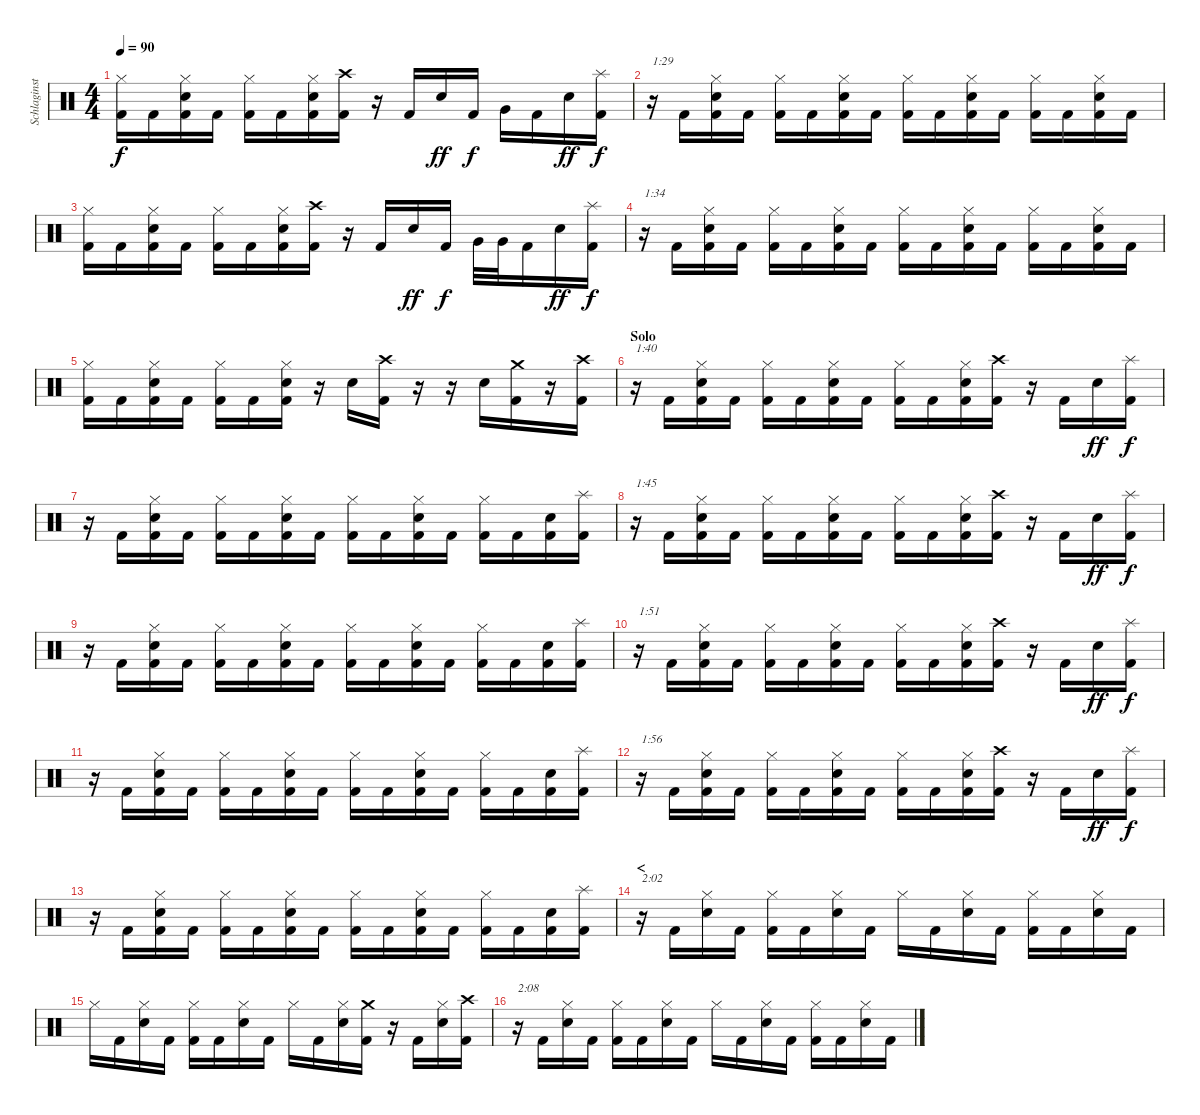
\track ("Schlaginstrumente - Auswahl" "Schlaginst") {instrument percussion}
\staff {score}
\articulation defaults
\ts (4 4)
\tempo 90
\clef neutral
\ks c
("Hi-Hat (closed)" "Kick (hit) 2").16{dy f} "Kick (hit) 2".16 ("Hi-Hat (closed)" "Electric Snare (hit)" "Kick (hit) 2").16 "Kick (hit) 2".16 ("Hi-Hat (closed)" "Kick (hit) 2").16 "Kick (hit) 2".16 ("Hi-Hat (closed)" "Electric Snare (hit)" "Kick (hit) 2").16 ("Crash high (hit)" "Kick (hit) 2").16 r.16 "Kick (hit) 2".16 "Electric Snare (hit)".16{dy ff} "Kick (hit) 2".16{dy f} "Very Low Tom (hit)".16 "Kick (hit) 2".16 "Electric Snare (hit)".16{dy ff} ("Splash (hit)" "Kick (hit) 2").16{dy f} |
r.16{txt "1:29"} "Kick (hit) 2".16 ("Hi-Hat (closed)" "Electric Snare (hit)" "Kick (hit) 2").16 "Kick (hit) 2".16 ("Hi-Hat (closed)" "Kick (hit) 2").16 "Kick (hit) 2".16 ("Hi-Hat (closed)" "Electric Snare (hit)" "Kick (hit) 2").16 "Kick (hit) 2".16 ("Hi-Hat (closed)" "Kick (hit) 2").16 "Kick (hit) 2".16 ("Hi-Hat (closed)" "Electric Snare (hit)" "Kick (hit) 2").16 "Kick (hit) 2".16 ("Hi-Hat (closed)" "Kick (hit) 2").16 "Kick (hit) 2".16 ("Hi-Hat (closed)" "Electric Snare (hit)" "Kick (hit) 2").16 "Kick (hit) 2".16 |
("Hi-Hat (closed)" "Kick (hit) 2").16 "Kick (hit) 2".16 ("Hi-Hat (closed)" "Electric Snare (hit)" "Kick (hit) 2").16 "Kick (hit) 2".16 ("Hi-Hat (closed)" "Kick (hit) 2").16 "Kick (hit) 2".16 ("Hi-Hat (closed)" "Electric Snare (hit)" "Kick (hit) 2").16 ("Crash high (hit)" "Kick (hit) 2").16 r.16 "Kick (hit) 2".16 "Electric Snare (hit)".16{dy ff} "Kick (hit) 2".16{dy f} "Very Low Tom (hit)".32 "Very Low Tom (hit)".32 "Kick (hit) 2".16 "Electric Snare (hit)".16{dy ff} ("Splash (hit)" "Kick (hit) 2").16{dy f} |
r.16{txt "1:34"} "Kick (hit) 2".16 ("Hi-Hat (closed)" "Electric Snare (hit)" "Kick (hit) 2").16 "Kick (hit) 2".16 ("Hi-Hat (closed)" "Kick (hit) 2").16 "Kick (hit) 2".16 ("Hi-Hat (closed)" "Electric Snare (hit)" "Kick (hit) 2").16 "Kick (hit) 2".16 ("Hi-Hat (closed)" "Kick (hit) 2").16 "Kick (hit) 2".16 ("Hi-Hat (closed)" "Electric Snare (hit)" "Kick (hit) 2").16 "Kick (hit) 2".16 ("Hi-Hat (closed)" "Kick (hit) 2").16 "Kick (hit) 2".16 ("Hi-Hat (closed)" "Electric Snare (hit)" "Kick (hit) 2").16 "Kick (hit) 2".16 |
("Hi-Hat (closed)" "Kick (hit) 2").16 "Kick (hit) 2".16 ("Hi-Hat (closed)" "Electric Snare (hit)" "Kick (hit) 2").16 "Kick (hit) 2".16 ("Hi-Hat (closed)" "Kick (hit) 2").16 "Kick (hit) 2".16 ("Hi-Hat (closed)" "Electric Snare (hit)" "Kick (hit) 2").16 r.16 "Electric Snare (hit)".16 ("Crash high (hit)" "Kick (hit) 2").16 r.16 r.16 "Electric Snare (hit)".16 ("Crash medium (hit)" "Kick (hit) 2").16 r.16 ("Crash high (hit)" "Kick (hit) 2").16 |
\section ("" "Solo")
r.16{txt "1:40"} "Kick (hit) 2".16 ("Hi-Hat (closed)" "Electric Snare (hit)" "Kick (hit) 2").16 "Kick (hit) 2".16 ("Hi-Hat (closed)" "Kick (hit) 2").16 "Kick (hit) 2".16 ("Hi-Hat (closed)" "Electric Snare (hit)" "Kick (hit) 2").16 "Kick (hit) 2".16 ("Hi-Hat (closed)" "Kick (hit) 2").16 "Kick (hit) 2".16 ("Hi-Hat (closed)" "Electric Snare (hit)" "Kick (hit) 2").16 ("Crash high (hit)" "Kick (hit) 2").16 r.16 "Kick (hit) 2".16 "Electric Snare (hit)".16{dy ff} ("Splash (hit)" "Kick (hit) 2").16{dy f} |
r.16 "Kick (hit) 2".16 ("Hi-Hat (closed)" "Electric Snare (hit)" "Kick (hit) 2").16 "Kick (hit) 2".16 ("Hi-Hat (closed)" "Kick (hit) 2").16 "Kick (hit) 2".16 ("Hi-Hat (closed)" "Electric Snare (hit)" "Kick (hit) 2").16 "Kick (hit) 2".16 ("Hi-Hat (closed)" "Kick (hit) 2").16 "Kick (hit) 2".16 ("Hi-Hat (closed)" "Electric Snare (hit)" "Kick (hit) 2").16 "Kick (hit) 2".16 ("Hi-Hat (closed)" "Kick (hit) 2").16 "Kick (hit) 2".16 ("Electric Snare (hit)" "Kick (hit) 2").16 ("Splash (hit)" "Kick (hit) 2").16 |
r.16{txt "1:45"} "Kick (hit) 2".16 ("Hi-Hat (closed)" "Electric Snare (hit)" "Kick (hit) 2").16 "Kick (hit) 2".16 ("Hi-Hat (closed)" "Kick (hit) 2").16 "Kick (hit) 2".16 ("Hi-Hat (closed)" "Electric Snare (hit)" "Kick (hit) 2").16 "Kick (hit) 2".16 ("Hi-Hat (closed)" "Kick (hit) 2").16 "Kick (hit) 2".16 ("Hi-Hat (closed)" "Electric Snare (hit)" "Kick (hit) 2").16 ("Crash high (hit)" "Kick (hit) 2").16 r.16 "Kick (hit) 2".16 "Electric Snare (hit)".16{dy ff} ("Splash (hit)" "Kick (hit) 2").16{dy f} |
r.16 "Kick (hit) 2".16 ("Hi-Hat (closed)" "Electric Snare (hit)" "Kick (hit) 2").16 "Kick (hit) 2".16 ("Hi-Hat (closed)" "Kick (hit) 2").16 "Kick (hit) 2".16 ("Hi-Hat (closed)" "Electric Snare (hit)" "Kick (hit) 2").16 "Kick (hit) 2".16 ("Hi-Hat (closed)" "Kick (hit) 2").16 "Kick (hit) 2".16 ("Hi-Hat (closed)" "Electric Snare (hit)" "Kick (hit) 2").16 "Kick (hit) 2".16 ("Hi-Hat (closed)" "Kick (hit) 2").16 "Kick (hit) 2".16 ("Electric Snare (hit)" "Kick (hit) 2").16 ("Splash (hit)" "Kick (hit) 2").16 |
r.16{txt "1:51"} "Kick (hit) 2".16 ("Hi-Hat (closed)" "Electric Snare (hit)" "Kick (hit) 2").16 "Kick (hit) 2".16 ("Hi-Hat (closed)" "Kick (hit) 2").16 "Kick (hit) 2".16 ("Hi-Hat (closed)" "Electric Snare (hit)" "Kick (hit) 2").16 "Kick (hit) 2".16 ("Hi-Hat (closed)" "Kick (hit) 2").16 "Kick (hit) 2".16 ("Hi-Hat (closed)" "Electric Snare (hit)" "Kick (hit) 2").16 ("Crash high (hit)" "Kick (hit) 2").16 r.16 "Kick (hit) 2".16 "Electric Snare (hit)".16{dy ff} ("Splash (hit)" "Kick (hit) 2").16{dy f} |
r.16 "Kick (hit) 2".16 ("Hi-Hat (closed)" "Electric Snare (hit)" "Kick (hit) 2").16 "Kick (hit) 2".16 ("Hi-Hat (closed)" "Kick (hit) 2").16 "Kick (hit) 2".16 ("Hi-Hat (closed)" "Electric Snare (hit)" "Kick (hit) 2").16 "Kick (hit) 2".16 ("Hi-Hat (closed)" "Kick (hit) 2").16 "Kick (hit) 2".16 ("Hi-Hat (closed)" "Electric Snare (hit)" "Kick (hit) 2").16 "Kick (hit) 2".16 ("Hi-Hat (closed)" "Kick (hit) 2").16 "Kick (hit) 2".16 ("Electric Snare (hit)" "Kick (hit) 2").16 ("Splash (hit)" "Kick (hit) 2").16 |
r.16{txt "1:56"} "Kick (hit) 2".16 ("Hi-Hat (closed)" "Electric Snare (hit)" "Kick (hit) 2").16 "Kick (hit) 2".16 ("Hi-Hat (closed)" "Kick (hit) 2").16 "Kick (hit) 2".16 ("Hi-Hat (closed)" "Electric Snare (hit)" "Kick (hit) 2").16 "Kick (hit) 2".16 ("Hi-Hat (closed)" "Kick (hit) 2").16 "Kick (hit) 2".16 ("Hi-Hat (closed)" "Electric Snare (hit)" "Kick (hit) 2").16 ("Crash high (hit)" "Kick (hit) 2").16 r.16 "Kick (hit) 2".16 "Electric Snare (hit)".16{dy ff} ("Splash (hit)" "Kick (hit) 2").16{dy f} |
r.16 "Kick (hit) 2".16 ("Hi-Hat (closed)" "Electric Snare (hit)" "Kick (hit) 2").16 "Kick (hit) 2".16 ("Hi-Hat (closed)" "Kick (hit) 2").16 "Kick (hit) 2".16 ("Hi-Hat (closed)" "Electric Snare (hit)" "Kick (hit) 2").16 "Kick (hit) 2".16 ("Hi-Hat (closed)" "Kick (hit) 2").16 "Kick (hit) 2".16 ("Hi-Hat (closed)" "Electric Snare (hit)" "Kick (hit) 2").16 "Kick (hit) 2".16 ("Hi-Hat (closed)" "Kick (hit) 2").16 "Kick (hit) 2".16 ("Electric Snare (hit)" "Kick (hit) 2").16 ("Splash (hit)" "Kick (hit) 2").16 |
\section ("" "<")
r.16{txt "2:02"} "Kick (hit) 2".16 ("Hi-Hat (closed)" "Electric Snare (hit)").16 "Kick (hit) 2".16 ("Hi-Hat (closed)" "Kick (hit) 2").16 "Kick (hit) 2".16 ("Hi-Hat (closed)" "Electric Snare (hit)").16 "Kick (hit) 2".16 "Hi-Hat (closed)".16 "Kick (hit) 2".16 ("Hi-Hat (closed)" "Electric Snare (hit)").16 "Kick (hit) 2".16 ("Hi-Hat (closed)" "Kick (hit) 2").16 "Kick (hit) 2".16 ("Hi-Hat (closed)" "Electric Snare (hit)").16 "Kick (hit) 2".16 |
"Hi-Hat (closed)".16 "Kick (hit) 2".16 ("Hi-Hat (closed)" "Electric Snare (hit)").16 "Kick (hit) 2".16 ("Hi-Hat (closed)" "Kick (hit) 2").16 "Kick (hit) 2".16 ("Hi-Hat (closed)" "Electric Snare (hit)").16 "Kick (hit) 2".16 "Hi-Hat (closed)".16 "Kick (hit) 2".16 ("Hi-Hat (closed)" "Electric Snare (hit)").16 ("Crash medium (hit)" "Kick (hit) 2").16 r.16 "Kick (hit) 2".16 ("Hi-Hat (closed)" "Electric Snare (hit)").16 ("Crash high (hit)" "Kick (hit) 2").16 |
r.16{txt "2:08"} "Kick (hit) 2".16 ("Hi-Hat (closed)" "Electric Snare (hit)").16 "Kick (hit) 2".16 ("Hi-Hat (closed)" "Kick (hit) 2").16 "Kick (hit) 2".16 ("Hi-Hat (closed)" "Electric Snare (hit)").16 "Kick (hit) 2".16 "Hi-Hat (closed)".16 "Kick (hit) 2".16 ("Hi-Hat (closed)" "Electric Snare (hit)").16 "Kick (hit) 2".16 ("Hi-Hat (closed)" "Kick (hit) 2").16 "Kick (hit) 2".16 ("Hi-Hat (closed)" "Electric Snare (hit)").16 "Kick (hit) 2".16
